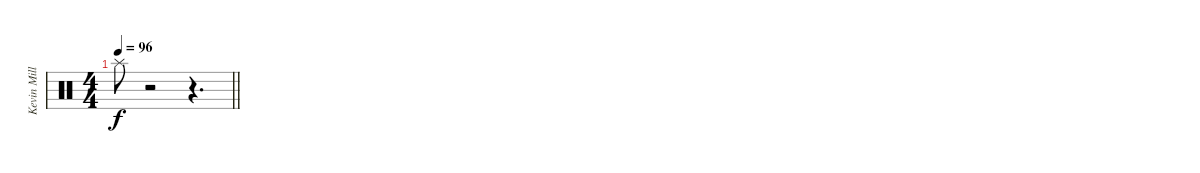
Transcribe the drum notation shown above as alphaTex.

\track ("Kevin Miller (Drums)" "Kevin Mill") {instrument percussion}
\staff {score}
\articulation defaults
\ts (4 4)
\tempo 96
\clef neutral
\barLineRight lightlight
\ks c "Splash (hit)".8{dy f}
r.2 r.4{d}
